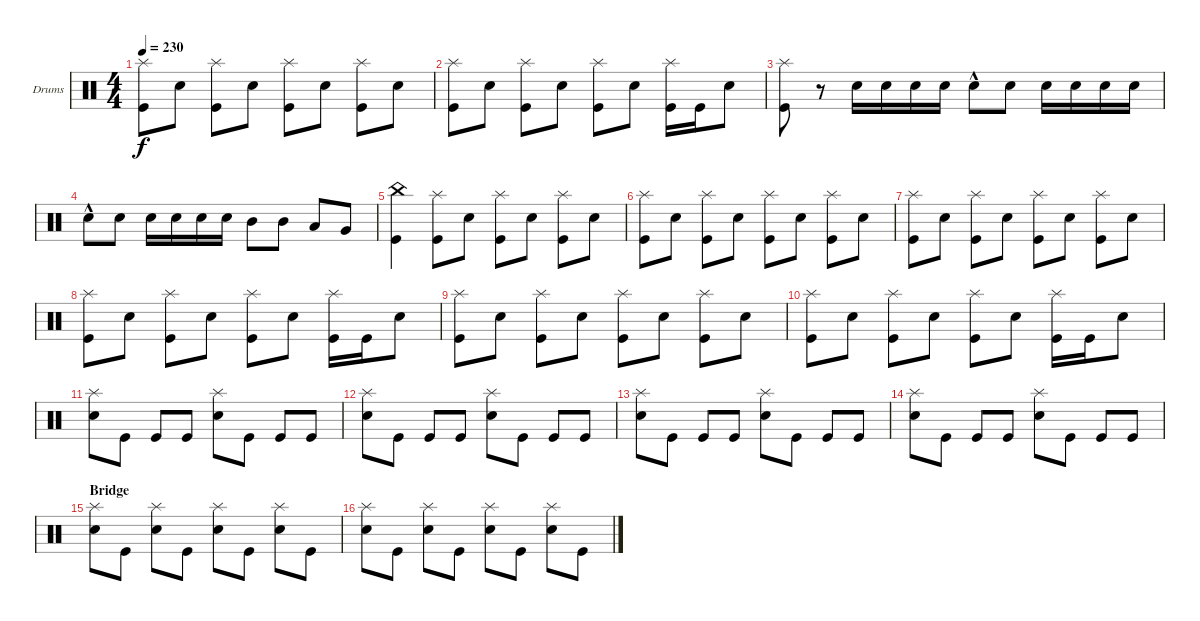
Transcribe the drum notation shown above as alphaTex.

\defaultSystemsLayout 4
\bracketExtendMode groupsimilarinstruments
\firstSystemTrackNameOrientation horizontal
\otherSystemsTrackNameOrientation horizontal
\track ("Drumkit" "Drums") {instrument percussion}
\staff {score}
\articulation defaults
\ts (4 4)
\tempo 230
\clef neutral
\ks c
("Kick (hit)" "Splash (hit)").8{dy f} "Snare (hit) 2".8 ("Kick (hit)" "Splash (hit)").8 "Snare (hit) 2".8 ("Kick (hit)" "Splash (hit)").8 "Snare (hit) 2".8 ("Kick (hit)" "Splash (hit)").8 "Snare (hit) 2".8 |
("Kick (hit)" "Splash (hit)").8 "Snare (hit) 2".8 ("Kick (hit)" "Splash (hit)").8 "Snare (hit) 2".8 ("Kick (hit)" "Splash (hit)").8 "Snare (hit) 2".8 ("Kick (hit)" "Splash (hit)").16 "Kick (hit)".16 "Snare (hit) 2".8 |
("Kick (hit)" "Splash (hit)").8 r.8 "Snare (hit) 2".16 "Snare (hit) 2".16 "Snare (hit) 2".16 "Snare (hit) 2".16 "Snare (hit) 2"{hac}.8 "Snare (hit) 2".8 "Snare (hit) 2".16 "Snare (hit) 2".16 "Snare (hit) 2".16 "Snare (hit) 2".16 |
"Snare (hit) 2"{hac}.8 "Snare (hit) 2".8 "Snare (hit) 2".16 "Snare (hit) 2".16 "Snare (hit) 2".16 "Snare (hit) 2".16 "Mid Tom (hit)".8 "Mid Tom (hit)".8 "Low Tom (hit)".8 "Very Low Tom (hit)".8 |
("China (hit)" "Kick (hit)").4 ("Kick (hit)" "Splash (hit)").8 "Snare (hit) 2".8 ("Kick (hit)" "Splash (hit)").8 "Snare (hit) 2".8 ("Kick (hit)" "Splash (hit)").8 "Snare (hit) 2".8 |
("Kick (hit)" "Splash (hit)").8 "Snare (hit) 2".8 ("Kick (hit)" "Splash (hit)").8 "Snare (hit) 2".8 ("Kick (hit)" "Splash (hit)").8 "Snare (hit) 2".8 ("Kick (hit)" "Splash (hit)").8 "Snare (hit) 2".8 |
("Kick (hit)" "Splash (hit)").8 "Snare (hit) 2".8 ("Kick (hit)" "Splash (hit)").8 "Snare (hit) 2".8 ("Kick (hit)" "Splash (hit)").8 "Snare (hit) 2".8 ("Kick (hit)" "Splash (hit)").8 "Snare (hit) 2".8 |
("Kick (hit)" "Splash (hit)").8 "Snare (hit) 2".8 ("Kick (hit)" "Splash (hit)").8 "Snare (hit) 2".8 ("Kick (hit)" "Splash (hit)").8 "Snare (hit) 2".8 ("Kick (hit)" "Splash (hit)").16 "Kick (hit)".16 "Snare (hit) 2".8 |
("Kick (hit)" "Splash (hit)").8 "Snare (hit) 2".8 ("Kick (hit)" "Splash (hit)").8 "Snare (hit) 2".8 ("Kick (hit)" "Splash (hit)").8 "Snare (hit) 2".8 ("Kick (hit)" "Splash (hit)").8 "Snare (hit) 2".8 |
("Kick (hit)" "Splash (hit)").8 "Snare (hit) 2".8 ("Kick (hit)" "Splash (hit)").8 "Snare (hit) 2".8 ("Kick (hit)" "Splash (hit)").8 "Snare (hit) 2".8 ("Kick (hit)" "Splash (hit)").16 "Kick (hit)".16 "Snare (hit) 2".8 |
("Splash (hit)" "Snare (hit) 2").8 "Kick (hit)".8 "Kick (hit)".8 "Kick (hit)".8 ("Snare (hit) 2" "Splash (hit)").8 "Kick (hit)".8 "Kick (hit)".8 "Kick (hit)".8 |
("Splash (hit)" "Snare (hit) 2").8 "Kick (hit)".8 "Kick (hit)".8 "Kick (hit)".8 ("Snare (hit) 2" "Splash (hit)").8 "Kick (hit)".8 "Kick (hit)".8 "Kick (hit)".8 |
("Splash (hit)" "Snare (hit) 2").8 "Kick (hit)".8 "Kick (hit)".8 "Kick (hit)".8 ("Snare (hit) 2" "Splash (hit)").8 "Kick (hit)".8 "Kick (hit)".8 "Kick (hit)".8 |
("Splash (hit)" "Snare (hit) 2").8 "Kick (hit)".8 "Kick (hit)".8 "Kick (hit)".8 ("Snare (hit) 2" "Splash (hit)").8 "Kick (hit)".8 "Kick (hit)".8 "Kick (hit)".8 |
\section ("" "Bridge")
("Splash (hit)" "Snare (hit) 2").8 "Kick (hit)".8 ("Splash (hit)" "Snare (hit) 2").8 "Kick (hit)".8 ("Splash (hit)" "Snare (hit) 2").8 "Kick (hit)".8 ("Splash (hit)" "Snare (hit) 2").8 "Kick (hit)".8 |
("Splash (hit)" "Snare (hit) 2").8 "Kick (hit)".8 ("Splash (hit)" "Snare (hit) 2").8 "Kick (hit)".8 ("Splash (hit)" "Snare (hit) 2").8 "Kick (hit)".8 ("Splash (hit)" "Snare (hit) 2").8 "Kick (hit)".8
